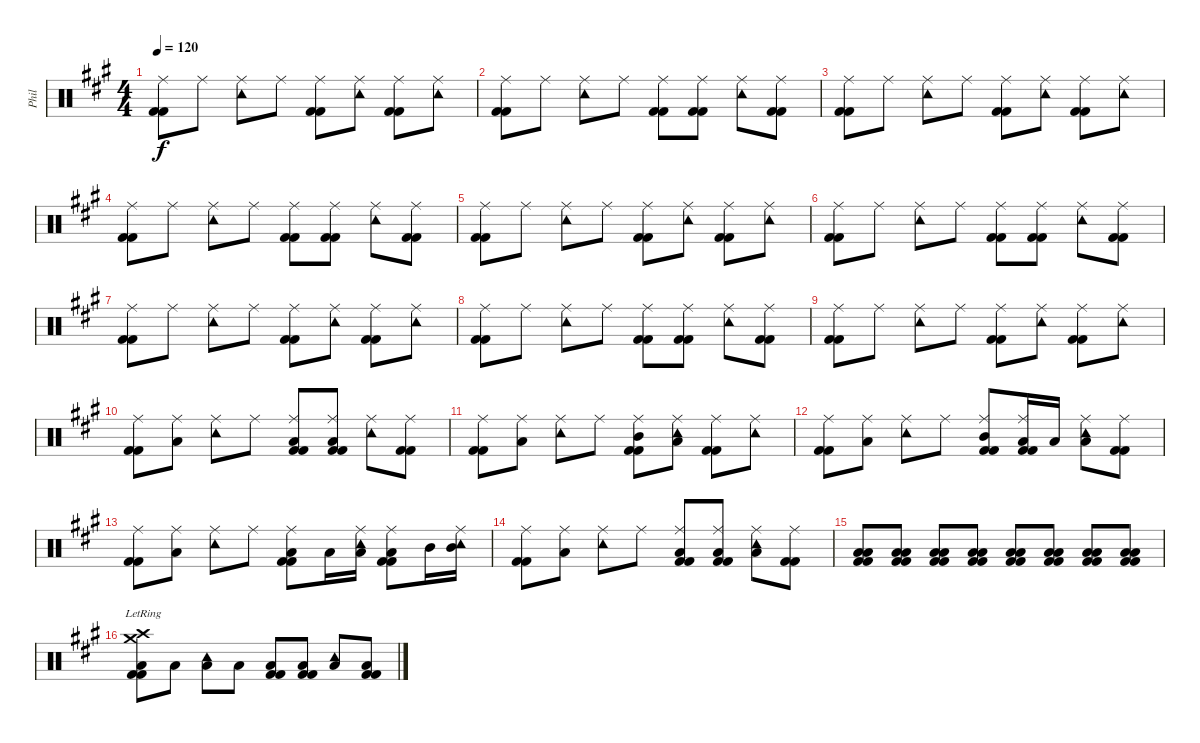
\track ("Phil" "Phil") {instrument percussion}
\staff {score}
\articulation defaults
\ts (4 4)
\tempo 120
\clef neutral
\ks a
("Kick (hit) 2" "Ride (middle)" "Kick (hit) 2").8{dy f} "Ride (middle)".8 ("Ride (middle)" "Tambourine (hit)").8 "Ride (middle)".8 ("Kick (hit) 2" "Ride (middle)" "Kick (hit) 2").8 ("Ride (middle)" "Tambourine (hit)").8 ("Kick (hit) 2" "Ride (middle)" "Kick (hit) 2").8 ("Ride (middle)" "Tambourine (hit)").8 |
("Kick (hit) 2" "Ride (middle)" "Kick (hit) 2").8 "Ride (middle)".8 ("Ride (middle)" "Tambourine (hit)").8 "Ride (middle)".8 ("Kick (hit) 2" "Ride (middle)" "Kick (hit) 2").8 ("Kick (hit) 2" "Ride (middle)" "Kick (hit) 2").8 ("Ride (middle)" "Tambourine (hit)").8 ("Kick (hit) 2" "Ride (middle)" "Kick (hit) 2").8 |
("Kick (hit) 2" "Ride (middle)" "Kick (hit) 2").8 "Ride (middle)".8 ("Ride (middle)" "Tambourine (hit)").8 "Ride (middle)".8 ("Kick (hit) 2" "Ride (middle)" "Kick (hit) 2").8 ("Ride (middle)" "Tambourine (hit)").8 ("Kick (hit) 2" "Ride (middle)" "Kick (hit) 2").8 ("Ride (middle)" "Tambourine (hit)").8 |
("Kick (hit) 2" "Ride (middle)" "Kick (hit) 2").8 "Ride (middle)".8 ("Ride (middle)" "Tambourine (hit)").8 "Ride (middle)".8 ("Kick (hit) 2" "Ride (middle)" "Kick (hit) 2").8 ("Kick (hit) 2" "Ride (middle)" "Kick (hit) 2").8 ("Ride (middle)" "Tambourine (hit)").8 ("Kick (hit) 2" "Ride (middle)" "Kick (hit) 2").8 |
("Kick (hit) 2" "Ride (middle)" "Kick (hit) 2").8 "Ride (middle)".8 ("Ride (middle)" "Tambourine (hit)").8 "Ride (middle)".8 ("Kick (hit) 2" "Ride (middle)" "Kick (hit) 2").8 ("Ride (middle)" "Tambourine (hit)").8 ("Kick (hit) 2" "Ride (middle)" "Kick (hit) 2").8 ("Ride (middle)" "Tambourine (hit)").8 |
("Kick (hit) 2" "Ride (middle)" "Kick (hit) 2").8 "Ride (middle)".8 ("Ride (middle)" "Tambourine (hit)").8 "Ride (middle)".8 ("Kick (hit) 2" "Ride (middle)" "Kick (hit) 2").8 ("Kick (hit) 2" "Ride (middle)" "Kick (hit) 2").8 ("Ride (middle)" "Tambourine (hit)").8 ("Kick (hit) 2" "Ride (middle)" "Kick (hit) 2").8 |
("Kick (hit) 2" "Ride (middle)" "Kick (hit) 2").8 "Ride (middle)".8 ("Ride (middle)" "Tambourine (hit)").8 "Ride (middle)".8 ("Kick (hit) 2" "Ride (middle)" "Kick (hit) 2").8 ("Ride (middle)" "Tambourine (hit)").8 ("Kick (hit) 2" "Ride (middle)" "Kick (hit) 2").8 ("Ride (middle)" "Tambourine (hit)").8 |
("Kick (hit) 2" "Ride (middle)" "Kick (hit) 2").8 "Ride (middle)".8 ("Ride (middle)" "Tambourine (hit)").8 "Ride (middle)".8 ("Kick (hit) 2" "Ride (middle)" "Kick (hit) 2").8 ("Kick (hit) 2" "Ride (middle)" "Kick (hit) 2").8 ("Ride (middle)" "Tambourine (hit)").8 ("Kick (hit) 2" "Ride (middle)" "Kick (hit) 2").8 |
("Kick (hit) 2" "Ride (middle)" "Kick (hit) 2").8 "Ride (middle)".8 ("Ride (middle)" "Tambourine (hit)").8 "Ride (middle)".8 ("Kick (hit) 2" "Ride (middle)" "Kick (hit) 2").8 ("Ride (middle)" "Tambourine (hit)").8 ("Kick (hit) 2" "Ride (middle)" "Kick (hit) 2").8 ("Ride (middle)" "Tambourine (hit)").8 |
("Kick (hit) 2" "Ride (middle)" "Kick (hit) 2").8 ("Ride (middle)" "Low Tom (hit)").8 ("Ride (middle)" "Tambourine (hit)").8 "Ride (middle)".8 ("Kick (hit) 2" "Ride (middle)" "Kick (hit) 2" "Low Floor Tom (hit)").8 ("Kick (hit) 2" "Ride (middle)" "Kick (hit) 2" "Low Tom (hit)").8 ("Ride (middle)" "Tambourine (hit)").8 ("Kick (hit) 2" "Ride (middle)" "Kick (hit) 2").8 |
("Kick (hit) 2" "Ride (middle)" "Kick (hit) 2").8 ("Ride (middle)" "Low Tom (hit)").8 ("Ride (middle)" "Tambourine (hit)").8 "Ride (middle)".8 ("Kick (hit) 2" "Ride (middle)" "Kick (hit) 2" "Mid Tom (hit)").8 ("Ride (middle)" "Tambourine (hit)" "Low Tom (hit)").8 ("Kick (hit) 2" "Ride (middle)" "Kick (hit) 2").8 ("Ride (middle)" "Tambourine (hit)").8 |
("Kick (hit) 2" "Ride (middle)" "Kick (hit) 2").8 ("Ride (middle)" "Low Tom (hit)").8 ("Ride (middle)" "Tambourine (hit)").8 "Ride (middle)".8 ("Kick (hit) 2" "Ride (middle)" "Kick (hit) 2" "Mid Tom (hit)").8 ("Kick (hit) 2" "Ride (middle)" "Kick (hit) 2" "Low Floor Tom (hit)").16 "Low Tom (hit)".16 ("Ride (middle)" "Tambourine (hit)" "Low Tom (hit)").8 ("Kick (hit) 2" "Ride (middle)" "Kick (hit) 2").8 |
("Kick (hit) 2" "Ride (middle)" "Kick (hit) 2").8 ("Ride (middle)" "Low Tom (hit)").8 ("Ride (middle)" "Tambourine (hit)").8 "Ride (middle)".8 ("Kick (hit) 2" "Ride (middle)" "Kick (hit) 2" "Low Floor Tom (hit)").8 "Low Tom (hit)".16 ("Ride (middle)" "Tambourine (hit)" "Low Tom (hit)").16 ("Kick (hit) 2" "Ride (middle)" "Kick (hit) 2" "Low Tom (hit)").8 "Mid Tom (hit)".16 ("Ride (middle)" "Tambourine (hit)" "Mid Tom (hit)").16 |
("Kick (hit) 2" "Ride (middle)" "Kick (hit) 2").8 ("Ride (middle)" "Low Tom (hit)").8 ("Ride (middle)" "Tambourine (hit)").8 "Ride (middle)".8 ("Kick (hit) 2" "Ride (middle)" "Kick (hit) 2" "Low Tom (hit)").8 ("Kick (hit) 2" "Ride (middle)" "Kick (hit) 2" "Low Tom (hit)").8 ("Ride (middle)" "Tambourine (hit)" "Low Tom (hit)").8 ("Kick (hit) 2" "Ride (middle)" "Kick (hit) 2").8 |
("Kick (hit) 2" "Low Floor Tom (hit)" "Kick (hit) 2" "Low Tom (hit)").8{volume 9} ("Kick (hit) 2" "Low Floor Tom (hit)" "Kick (hit) 2" "Low Tom (hit)").8 ("Kick (hit) 2" "Low Floor Tom (hit)" "Kick (hit) 2" "Low Tom (hit)").8{volume 10} ("Kick (hit) 2" "Low Floor Tom (hit)" "Kick (hit) 2" "Low Tom (hit)").8 ("Kick (hit) 2" "Low Floor Tom (hit)" "Kick (hit) 2" "Low Tom (hit)").8{volume 11} ("Kick (hit) 2" "Low Floor Tom (hit)" "Kick (hit) 2" "Low Tom (hit)").8 ("Kick (hit) 2" "Low Floor Tom (hit)" "Kick (hit) 2" "Low Tom (hit)").8 ("Kick (hit) 2" "Low Floor Tom (hit)" "Kick (hit) 2" "Low Tom (hit)").8 |
("Kick (hit) 2" "Low Floor Tom (hit)" "Kick (hit) 2" "Crash high (hit)"{lr} "Crash medium (hit)"{lr}).8 "Low Floor Tom (hit)".8 ("Low Floor Tom (hit)" "Tambourine (hit)").8 "Low Floor Tom (hit)".8 ("Kick (hit) 2" "Low Floor Tom (hit)" "Kick (hit) 2").8 ("Kick (hit) 2" "Low Floor Tom (hit)" "Kick (hit) 2").8 ("Low Floor Tom (hit)" "Tambourine (hit)").8 ("Kick (hit) 2" "Low Floor Tom (hit)" "Kick (hit) 2").8
